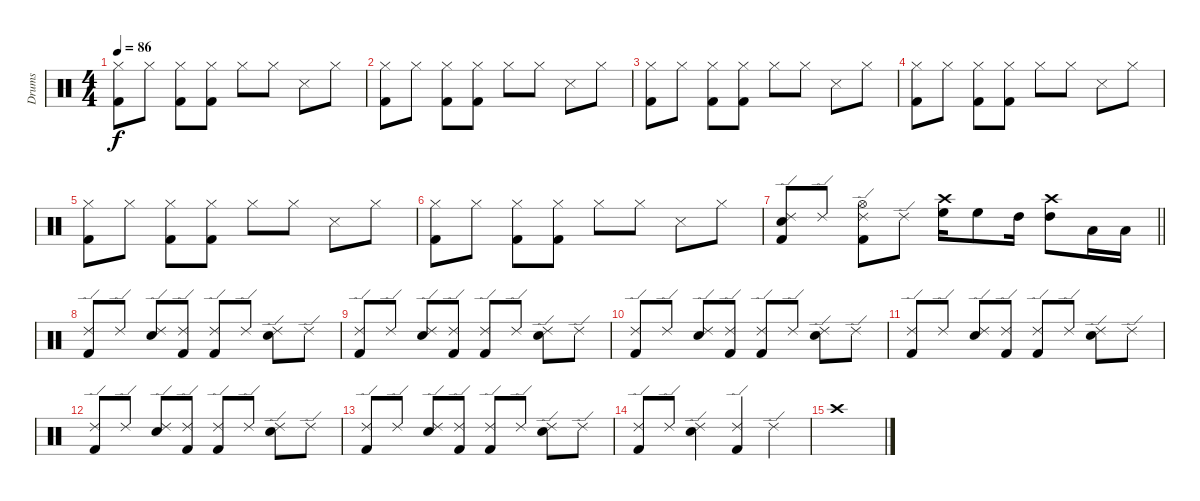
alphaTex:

\track ("Drums" "Drums") {instrument percussion}
\staff {score}
\articulation defaults
\ts (4 4)
\tempo 86
\clef neutral
\ks c
("Hi-Hat (closed)" "Kick (hit) 2").8{dy f} "Hi-Hat (closed)".8 ("Hi-Hat (closed)" "Kick (hit) 2").8 ("Hi-Hat (closed)" "Kick (hit) 2").8 "Hi-Hat (closed)".8 "Hi-Hat (closed)".8 "Snare (side stick) 3".8 "Hi-Hat (closed)".8 |
("Hi-Hat (closed)" "Kick (hit) 2").8 "Hi-Hat (closed)".8 ("Hi-Hat (closed)" "Kick (hit) 2").8 ("Hi-Hat (closed)" "Kick (hit) 2").8 "Hi-Hat (closed)".8 "Hi-Hat (closed)".8 "Snare (side stick) 3".8 "Hi-Hat (closed)".8 |
("Hi-Hat (closed)" "Kick (hit) 2").8 "Hi-Hat (closed)".8 ("Hi-Hat (closed)" "Kick (hit) 2").8 ("Hi-Hat (closed)" "Kick (hit) 2").8 "Hi-Hat (closed)".8 "Hi-Hat (closed)".8 "Snare (side stick) 3".8 "Hi-Hat (closed)".8 |
("Hi-Hat (closed)" "Kick (hit) 2").8 "Hi-Hat (closed)".8 ("Hi-Hat (closed)" "Kick (hit) 2").8 ("Hi-Hat (closed)" "Kick (hit) 2").8 "Hi-Hat (closed)".8 "Hi-Hat (closed)".8 "Snare (side stick) 3".8 "Hi-Hat (closed)".8 |
("Hi-Hat (closed)" "Kick (hit) 2").8 "Hi-Hat (closed)".8 ("Hi-Hat (closed)" "Kick (hit) 2").8 ("Hi-Hat (closed)" "Kick (hit) 2").8 "Hi-Hat (closed)".8 "Hi-Hat (closed)".8 "Snare (side stick) 3".8 "Hi-Hat (closed)".8 |
("Hi-Hat (closed)" "Kick (hit) 2").8 "Hi-Hat (closed)".8 ("Hi-Hat (closed)" "Kick (hit) 2").8 ("Hi-Hat (closed)" "Kick (hit) 2").8 "Hi-Hat (closed)".8 "Hi-Hat (closed)".8 "Snare (side stick) 3".8 "Hi-Hat (closed)".8 |
\barLineRight lightlight
("Ride (edge) 2" "Snare (hit) 2" "Kick (hit) 2").8 "Ride (edge) 2".8 ("Ride (edge) 2" "Hi-Hat (open)" "Kick (hit) 2").8 "Ride (edge) 2".8 ("Crash high (hit)" "High Floor Tom (hit)").16 "High Floor Tom (hit)".8 "High Tom (hit)".16 ("Crash high (hit)" "High Tom (hit)").8 "Low Tom (hit)".16 "Low Tom (hit)".16 |
("Ride (edge) 2" "Kick (hit) 2").8 "Ride (edge) 2".8 ("Ride (edge) 2" "Snare (hit) 2").8 ("Ride (edge) 2" "Kick (hit) 2").8 ("Ride (edge) 2" "Kick (hit) 2").8 "Ride (edge) 2".8 ("Ride (edge) 2" "Snare (hit) 2").8 "Ride (edge) 2".8 |
("Ride (edge) 2" "Kick (hit) 2").8 "Ride (edge) 2".8 ("Ride (edge) 2" "Snare (hit) 2").8 ("Ride (edge) 2" "Kick (hit) 2").8 ("Ride (edge) 2" "Kick (hit) 2").8 "Ride (edge) 2".8 ("Ride (edge) 2" "Snare (hit) 2").8 "Ride (edge) 2".8 |
("Ride (edge) 2" "Kick (hit) 2").8 "Ride (edge) 2".8 ("Ride (edge) 2" "Snare (hit) 2").8 ("Ride (edge) 2" "Kick (hit) 2").8 ("Ride (edge) 2" "Kick (hit) 2").8 "Ride (edge) 2".8 ("Ride (edge) 2" "Snare (hit) 2").8 "Ride (edge) 2".8 |
("Ride (edge) 2" "Kick (hit) 2").8 "Ride (edge) 2".8 ("Ride (edge) 2" "Snare (hit) 2").8 ("Ride (edge) 2" "Kick (hit) 2").8 ("Ride (edge) 2" "Kick (hit) 2").8 "Ride (edge) 2".8 ("Ride (edge) 2" "Snare (hit) 2").8 "Ride (edge) 2".8 |
("Ride (edge) 2" "Kick (hit) 2").8 "Ride (edge) 2".8 ("Ride (edge) 2" "Snare (hit) 2").8 ("Ride (edge) 2" "Kick (hit) 2").8 ("Ride (edge) 2" "Kick (hit) 2").8 "Ride (edge) 2".8 ("Ride (edge) 2" "Snare (hit) 2").8 "Ride (edge) 2".8 |
("Ride (edge) 2" "Kick (hit) 2").8 "Ride (edge) 2".8 ("Ride (edge) 2" "Snare (hit) 2").8 ("Ride (edge) 2" "Kick (hit) 2").8 ("Ride (edge) 2" "Kick (hit) 2").8 "Ride (edge) 2".8 ("Ride (edge) 2" "Snare (hit) 2").8 "Ride (edge) 2".8 |
("Ride (edge) 2" "Kick (hit) 2").8 "Ride (edge) 2".8 ("Ride (edge) 2" "Snare (hit) 2").4 ("Ride (edge) 2" "Kick (hit) 2").4 "Ride (edge) 2".4 |
"Crash high (hit)".1
